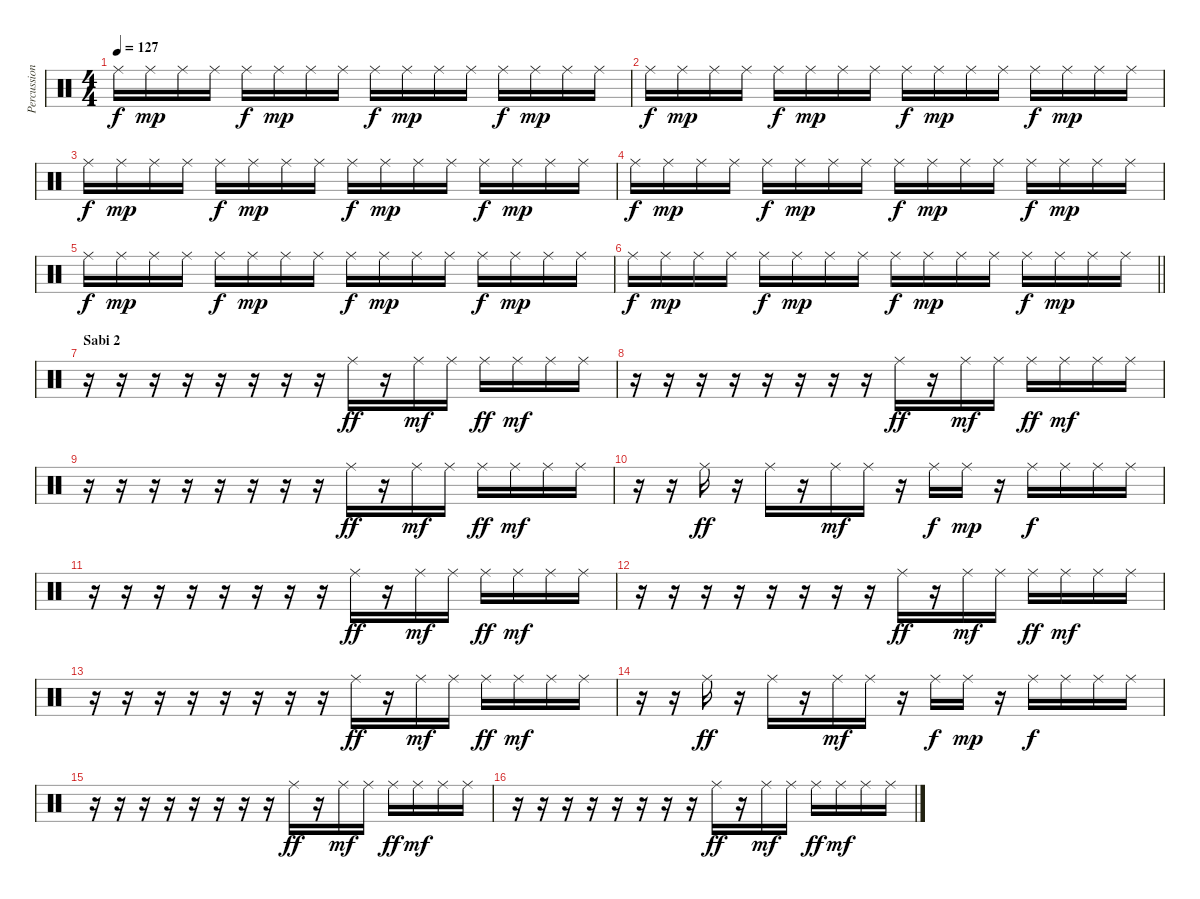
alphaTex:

\track ("Percussion" "Percussion") {instrument percussion}
\staff {score}
\articulation defaults
\ts (4 4)
\tempo 127
\clef neutral
\ks c "Ride (middle)".16{dy f} "Ride (middle)".16{dy mp} "Ride (middle)".16 "Ride (middle)".16 "Ride (middle)".16{dy f} "Ride (middle)".16{dy mp} "Ride (middle)".16 "Ride (middle)".16 "Ride (middle)".16{dy f} "Ride (middle)".16{dy mp} "Ride (middle)".16 "Ride (middle)".16 "Ride (middle)".16{dy f} "Ride (middle)".16{dy mp} "Ride (middle)".16 "Ride (middle)".16
|
"Ride (middle)".16{dy f} "Ride (middle)".16{dy mp} "Ride (middle)".16 "Ride (middle)".16 "Ride (middle)".16{dy f} "Ride (middle)".16{dy mp} "Ride (middle)".16 "Ride (middle)".16 "Ride (middle)".16{dy f} "Ride (middle)".16{dy mp} "Ride (middle)".16 "Ride (middle)".16 "Ride (middle)".16{dy f} "Ride (middle)".16{dy mp} "Ride (middle)".16 "Ride (middle)".16 |
"Ride (middle)".16{dy f} "Ride (middle)".16{dy mp} "Ride (middle)".16 "Ride (middle)".16 "Ride (middle)".16{dy f} "Ride (middle)".16{dy mp} "Ride (middle)".16 "Ride (middle)".16 "Ride (middle)".16{dy f} "Ride (middle)".16{dy mp} "Ride (middle)".16 "Ride (middle)".16 "Ride (middle)".16{dy f} "Ride (middle)".16{dy mp} "Ride (middle)".16 "Ride (middle)".16 |
"Ride (middle)".16{dy f} "Ride (middle)".16{dy mp} "Ride (middle)".16 "Ride (middle)".16 "Ride (middle)".16{dy f} "Ride (middle)".16{dy mp} "Ride (middle)".16 "Ride (middle)".16 "Ride (middle)".16{dy f} "Ride (middle)".16{dy mp} "Ride (middle)".16 "Ride (middle)".16 "Ride (middle)".16{dy f} "Ride (middle)".16{dy mp} "Ride (middle)".16 "Ride (middle)".16 |
"Ride (middle)".16{dy f} "Ride (middle)".16{dy mp} "Ride (middle)".16 "Ride (middle)".16 "Ride (middle)".16{dy f} "Ride (middle)".16{dy mp} "Ride (middle)".16 "Ride (middle)".16 "Ride (middle)".16{dy f} "Ride (middle)".16{dy mp} "Ride (middle)".16 "Ride (middle)".16 "Ride (middle)".16{dy f} "Ride (middle)".16{dy mp} "Ride (middle)".16 "Ride (middle)".16 |
\barLineRight lightlight "Ride (middle)".16{dy f} "Ride (middle)".16{dy mp} "Ride (middle)".16 "Ride (middle)".16 "Ride (middle)".16{dy f} "Ride (middle)".16{dy mp} "Ride (middle)".16 "Ride (middle)".16 "Ride (middle)".16{dy f} "Ride (middle)".16{dy mp} "Ride (middle)".16 "Ride (middle)".16 "Ride (middle)".16{dy f} "Ride (middle)".16{dy mp} "Ride (middle)".16 "Ride (middle)".16
|
\section ("" "Sabi 2")
r.16 r.16 r.16 r.16 r.16 r.16 r.16 r.16 "Ride (middle)".16{dy ff} r.16 "Ride (middle)".16{dy mf} "Ride (middle)".16 "Ride (middle)".16{dy ff} "Ride (middle)".16{dy mf} "Ride (middle)".16 "Ride (middle)".16 |
r.16 r.16 r.16 r.16 r.16 r.16 r.16 r.16 "Ride (middle)".16{dy ff} r.16 "Ride (middle)".16{dy mf} "Ride (middle)".16 "Ride (middle)".16{dy ff} "Ride (middle)".16{dy mf} "Ride (middle)".16 "Ride (middle)".16 |
r.16 r.16 r.16 r.16 r.16 r.16 r.16 r.16 "Ride (middle)".16{dy ff} r.16 "Ride (middle)".16{dy mf} "Ride (middle)".16 "Ride (middle)".16{dy ff} "Ride (middle)".16{dy mf} "Ride (middle)".16 "Ride (middle)".16 |
r.16 r.16 "Ride (middle)".16{dy ff} r.16 "Ride (middle)".16 r.16 "Ride (middle)".16{dy mf} "Ride (middle)".16 r.16 "Ride (middle)".16{dy f} "Ride (middle)".16{dy mp} r.16 "Ride (middle)".16{dy f} "Ride (middle)".16 "Ride (middle)".16 "Ride (middle)".16 |
r.16 r.16 r.16 r.16 r.16 r.16 r.16 r.16 "Ride (middle)".16{dy ff} r.16 "Ride (middle)".16{dy mf} "Ride (middle)".16 "Ride (middle)".16{dy ff} "Ride (middle)".16{dy mf} "Ride (middle)".16 "Ride (middle)".16 |
r.16 r.16 r.16 r.16 r.16 r.16 r.16 r.16 "Ride (middle)".16{dy ff} r.16 "Ride (middle)".16{dy mf} "Ride (middle)".16 "Ride (middle)".16{dy ff} "Ride (middle)".16{dy mf} "Ride (middle)".16 "Ride (middle)".16 |
r.16 r.16 r.16 r.16 r.16 r.16 r.16 r.16 "Ride (middle)".16{dy ff} r.16 "Ride (middle)".16{dy mf} "Ride (middle)".16 "Ride (middle)".16{dy ff} "Ride (middle)".16{dy mf} "Ride (middle)".16 "Ride (middle)".16 |
r.16 r.16 "Ride (middle)".16{dy ff} r.16 "Ride (middle)".16 r.16 "Ride (middle)".16{dy mf} "Ride (middle)".16 r.16 "Ride (middle)".16{dy f} "Ride (middle)".16{dy mp} r.16 "Ride (middle)".16{dy f} "Ride (middle)".16 "Ride (middle)".16 "Ride (middle)".16 |
r.16 r.16 r.16 r.16 r.16 r.16 r.16 r.16 "Ride (middle)".16{dy ff} r.16 "Ride (middle)".16{dy mf} "Ride (middle)".16 "Ride (middle)".16{dy ff} "Ride (middle)".16{dy mf} "Ride (middle)".16 "Ride (middle)".16 |
r.16 r.16 r.16 r.16 r.16 r.16 r.16 r.16 "Ride (middle)".16{dy ff} r.16 "Ride (middle)".16{dy mf} "Ride (middle)".16 "Ride (middle)".16{dy ff} "Ride (middle)".16{dy mf} "Ride (middle)".16 "Ride (middle)".16
